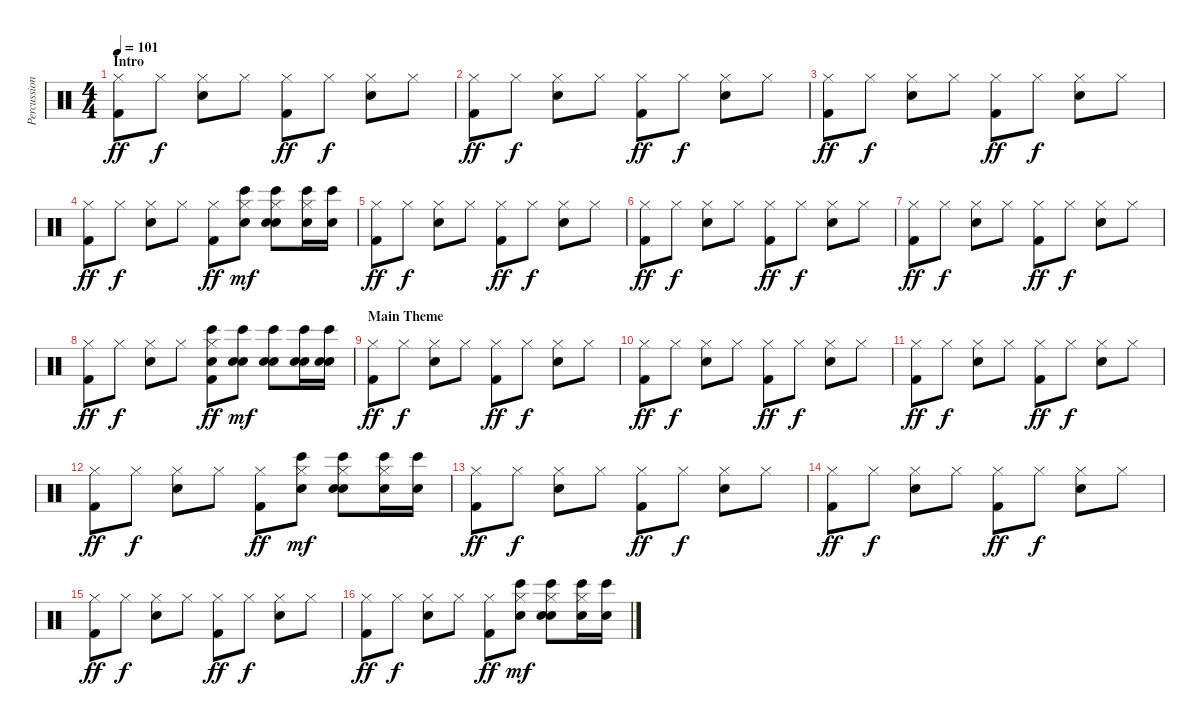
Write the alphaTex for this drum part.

\track ("Percussion" "Percussion") {instrument percussion}
\staff {score}
\articulation defaults
\ts (4 4)
\section ("" "Intro")
\tempo 101
\clef neutral
\ks c
("Hi-Hat (closed)" "Kick (hit) 2").8{dy ff} "Hi-Hat (closed)".8{dy f} ("Hi-Hat (closed)" "Electric Snare (hit)").8 "Hi-Hat (closed)".8 ("Hi-Hat (closed)" "Kick (hit) 2").8{dy ff} "Hi-Hat (closed)".8{dy f} ("Hi-Hat (closed)" "Electric Snare (hit)").8 "Hi-Hat (closed)".8 |
("Hi-Hat (closed)" "Kick (hit) 2").8{dy ff} "Hi-Hat (closed)".8{dy f} ("Hi-Hat (closed)" "Electric Snare (hit)").8 "Hi-Hat (closed)".8 ("Hi-Hat (closed)" "Kick (hit) 2").8{dy ff} "Hi-Hat (closed)".8{dy f} ("Hi-Hat (closed)" "Electric Snare (hit)").8 "Hi-Hat (closed)".8 |
("Hi-Hat (closed)" "Kick (hit) 2").8{dy ff} "Hi-Hat (closed)".8{dy f} ("Hi-Hat (closed)" "Electric Snare (hit)").8 "Hi-Hat (closed)".8 ("Hi-Hat (closed)" "Kick (hit) 2").8{dy ff} "Hi-Hat (closed)".8{dy f} ("Hi-Hat (closed)" "Electric Snare (hit)").8 "Hi-Hat (closed)".8 |
("Hi-Hat (closed)" "Kick (hit) 2").8{dy ff} "Hi-Hat (closed)".8{dy f} ("Hi-Hat (closed)" "Electric Snare (hit)").8 "Hi-Hat (closed)".8 ("Hi-Hat (closed)" "Kick (hit) 2").8{dy ff} ("Hi-Hat (closed)" "Bongo High (hit)" "Hand Clap (hit)").8{dy mf} ("Hi-Hat (closed)" "Bongo High (hit)" "Hand Clap (hit)" "Electric Snare (hit)").8 ("Hi-Hat (closed)" "Bongo High (hit)" "Hand Clap (hit)").16 ("Bongo High (hit)" "Hand Clap (hit)").16 |
("Hi-Hat (closed)" "Kick (hit) 2").8{dy ff} "Hi-Hat (closed)".8{dy f} ("Hi-Hat (closed)" "Electric Snare (hit)").8 "Hi-Hat (closed)".8 ("Hi-Hat (closed)" "Kick (hit) 2").8{dy ff} "Hi-Hat (closed)".8{dy f} ("Hi-Hat (closed)" "Electric Snare (hit)").8 "Hi-Hat (closed)".8 |
("Hi-Hat (closed)" "Kick (hit) 2").8{dy ff} "Hi-Hat (closed)".8{dy f} ("Hi-Hat (closed)" "Electric Snare (hit)").8 "Hi-Hat (closed)".8 ("Hi-Hat (closed)" "Kick (hit) 2").8{dy ff} "Hi-Hat (closed)".8{dy f} ("Hi-Hat (closed)" "Electric Snare (hit)").8 "Hi-Hat (closed)".8 |
("Hi-Hat (closed)" "Kick (hit) 2").8{dy ff} "Hi-Hat (closed)".8{dy f} ("Hi-Hat (closed)" "Electric Snare (hit)").8 "Hi-Hat (closed)".8 ("Hi-Hat (closed)" "Kick (hit) 2").8{dy ff} "Hi-Hat (closed)".8{dy f} ("Hi-Hat (closed)" "Electric Snare (hit)").8 "Hi-Hat (closed)".8 |
("Hi-Hat (closed)" "Kick (hit) 2").8{dy ff} "Hi-Hat (closed)".8{dy f} ("Hi-Hat (closed)" "Electric Snare (hit)").8 "Hi-Hat (closed)".8 ("Hi-Hat (closed)" "Bongo High (hit)" "Hand Clap (hit)" "Kick (hit) 2").8{dy ff} ("Bongo High (hit)" "Hand Clap (hit)" "Electric Snare (hit)").8{dy mf} ("Bongo High (hit)" "Hand Clap (hit)" "Electric Snare (hit)").8 ("Bongo High (hit)" "Hand Clap (hit)" "Electric Snare (hit)").16 ("Bongo High (hit)" "Hand Clap (hit)" "Electric Snare (hit)").16 |
\section ("" "Main Theme")
("Hi-Hat (closed)" "Kick (hit) 2").8{dy ff} "Hi-Hat (closed)".8{dy f} ("Hi-Hat (closed)" "Electric Snare (hit)").8 "Hi-Hat (closed)".8 ("Hi-Hat (closed)" "Kick (hit) 2").8{dy ff} "Hi-Hat (closed)".8{dy f} ("Hi-Hat (closed)" "Electric Snare (hit)").8 "Hi-Hat (closed)".8 |
("Hi-Hat (closed)" "Kick (hit) 2").8{dy ff} "Hi-Hat (closed)".8{dy f} ("Hi-Hat (closed)" "Electric Snare (hit)").8 "Hi-Hat (closed)".8 ("Hi-Hat (closed)" "Kick (hit) 2").8{dy ff} "Hi-Hat (closed)".8{dy f} ("Hi-Hat (closed)" "Electric Snare (hit)").8 "Hi-Hat (closed)".8 |
("Hi-Hat (closed)" "Kick (hit) 2").8{dy ff} "Hi-Hat (closed)".8{dy f} ("Hi-Hat (closed)" "Electric Snare (hit)").8 "Hi-Hat (closed)".8 ("Hi-Hat (closed)" "Kick (hit) 2").8{dy ff} "Hi-Hat (closed)".8{dy f} ("Hi-Hat (closed)" "Electric Snare (hit)").8 "Hi-Hat (closed)".8 |
("Hi-Hat (closed)" "Kick (hit) 2").8{dy ff} "Hi-Hat (closed)".8{dy f} ("Hi-Hat (closed)" "Electric Snare (hit)").8 "Hi-Hat (closed)".8 ("Hi-Hat (closed)" "Kick (hit) 2").8{dy ff} ("Hi-Hat (closed)" "Bongo High (hit)" "Hand Clap (hit)").8{dy mf} ("Hi-Hat (closed)" "Bongo High (hit)" "Hand Clap (hit)" "Electric Snare (hit)").8 ("Hi-Hat (closed)" "Bongo High (hit)" "Hand Clap (hit)").16 ("Bongo High (hit)" "Hand Clap (hit)").16 |
("Hi-Hat (closed)" "Kick (hit) 2").8{dy ff} "Hi-Hat (closed)".8{dy f} ("Hi-Hat (closed)" "Electric Snare (hit)").8 "Hi-Hat (closed)".8 ("Hi-Hat (closed)" "Kick (hit) 2").8{dy ff} "Hi-Hat (closed)".8{dy f} ("Hi-Hat (closed)" "Electric Snare (hit)").8 "Hi-Hat (closed)".8 |
("Hi-Hat (closed)" "Kick (hit) 2").8{dy ff} "Hi-Hat (closed)".8{dy f} ("Hi-Hat (closed)" "Electric Snare (hit)").8 "Hi-Hat (closed)".8 ("Hi-Hat (closed)" "Kick (hit) 2").8{dy ff} "Hi-Hat (closed)".8{dy f} ("Hi-Hat (closed)" "Electric Snare (hit)").8 "Hi-Hat (closed)".8 |
("Hi-Hat (closed)" "Kick (hit) 2").8{dy ff} "Hi-Hat (closed)".8{dy f} ("Hi-Hat (closed)" "Electric Snare (hit)").8 "Hi-Hat (closed)".8 ("Hi-Hat (closed)" "Kick (hit) 2").8{dy ff} "Hi-Hat (closed)".8{dy f} ("Hi-Hat (closed)" "Electric Snare (hit)").8 "Hi-Hat (closed)".8 |
("Hi-Hat (closed)" "Kick (hit) 2").8{dy ff} "Hi-Hat (closed)".8{dy f} ("Hi-Hat (closed)" "Electric Snare (hit)").8 "Hi-Hat (closed)".8 ("Hi-Hat (closed)" "Kick (hit) 2").8{dy ff} ("Hi-Hat (closed)" "Bongo High (hit)" "Hand Clap (hit)").8{dy mf} ("Hi-Hat (closed)" "Bongo High (hit)" "Hand Clap (hit)" "Electric Snare (hit)").8 ("Hi-Hat (closed)" "Bongo High (hit)" "Hand Clap (hit)").16 ("Bongo High (hit)" "Hand Clap (hit)").16
